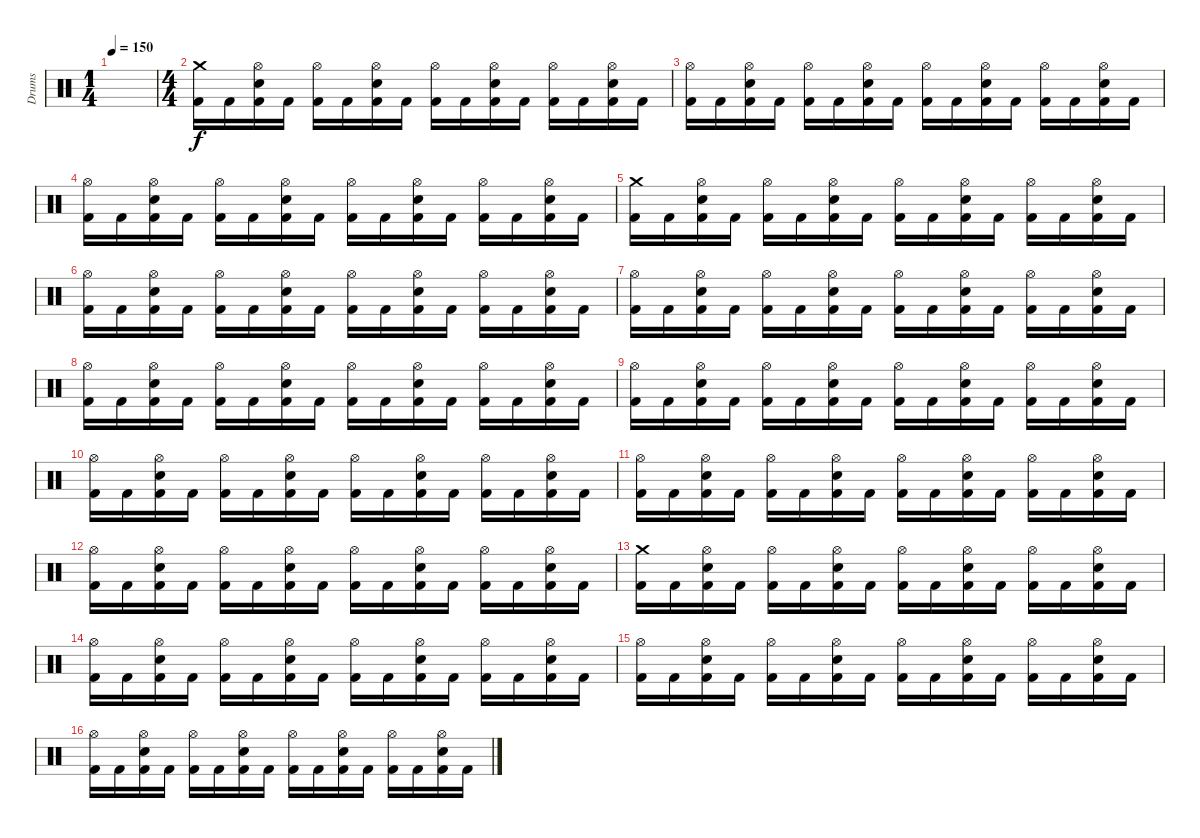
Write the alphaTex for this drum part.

\track ("Drums" "Drums") {instrument percussion}
\staff {score}
\articulation defaults
\ts (1 4)
\tempo 150
\clef neutral
\ks c
|
\ts (4 4)
("Kick (hit) 2" "Crash medium (hit)").16 "Kick (hit) 2".16 ("Kick (hit) 2" "Snare (hit) 2" "Hi-Hat (open)").16 "Kick (hit) 2".16 ("Kick (hit) 2" "Hi-Hat (open)").16 "Kick (hit) 2".16 ("Kick (hit) 2" "Snare (hit) 2" "Hi-Hat (open)").16 "Kick (hit) 2".16 ("Kick (hit) 2" "Hi-Hat (open)").16 "Kick (hit) 2".16 ("Kick (hit) 2" "Snare (hit) 2" "Hi-Hat (open)").16 "Kick (hit) 2".16 ("Kick (hit) 2" "Hi-Hat (open)").16 "Kick (hit) 2".16 ("Kick (hit) 2" "Snare (hit) 2" "Hi-Hat (open)").16 "Kick (hit) 2".16 |
("Kick (hit) 2" "Hi-Hat (open)").16 "Kick (hit) 2".16 ("Kick (hit) 2" "Snare (hit) 2" "Hi-Hat (open)").16 "Kick (hit) 2".16 ("Kick (hit) 2" "Hi-Hat (open)").16 "Kick (hit) 2".16 ("Kick (hit) 2" "Snare (hit) 2" "Hi-Hat (open)").16 "Kick (hit) 2".16 ("Kick (hit) 2" "Hi-Hat (open)").16 "Kick (hit) 2".16 ("Kick (hit) 2" "Snare (hit) 2" "Hi-Hat (open)").16 "Kick (hit) 2".16 ("Kick (hit) 2" "Hi-Hat (open)").16 "Kick (hit) 2".16 ("Kick (hit) 2" "Snare (hit) 2" "Hi-Hat (open)").16 "Kick (hit) 2".16 |
("Kick (hit) 2" "Hi-Hat (open)").16 "Kick (hit) 2".16 ("Kick (hit) 2" "Snare (hit) 2" "Hi-Hat (open)").16 "Kick (hit) 2".16 ("Kick (hit) 2" "Hi-Hat (open)").16 "Kick (hit) 2".16 ("Kick (hit) 2" "Snare (hit) 2" "Hi-Hat (open)").16 "Kick (hit) 2".16 ("Kick (hit) 2" "Hi-Hat (open)").16 "Kick (hit) 2".16 ("Kick (hit) 2" "Snare (hit) 2" "Hi-Hat (open)").16 "Kick (hit) 2".16 ("Kick (hit) 2" "Hi-Hat (open)").16 "Kick (hit) 2".16 ("Kick (hit) 2" "Snare (hit) 2" "Hi-Hat (open)").16 "Kick (hit) 2".16 |
("Kick (hit) 2" "Crash medium (hit)").16 "Kick (hit) 2".16 ("Kick (hit) 2" "Snare (hit) 2" "Hi-Hat (open)").16 "Kick (hit) 2".16 ("Kick (hit) 2" "Hi-Hat (open)").16 "Kick (hit) 2".16 ("Kick (hit) 2" "Snare (hit) 2" "Hi-Hat (open)").16 "Kick (hit) 2".16 ("Kick (hit) 2" "Hi-Hat (open)").16 "Kick (hit) 2".16 ("Kick (hit) 2" "Snare (hit) 2" "Hi-Hat (open)").16 "Kick (hit) 2".16 ("Kick (hit) 2" "Hi-Hat (open)").16 "Kick (hit) 2".16 ("Kick (hit) 2" "Snare (hit) 2" "Hi-Hat (open)").16 "Kick (hit) 2".16 |
("Kick (hit) 2" "Hi-Hat (open)").16 "Kick (hit) 2".16 ("Kick (hit) 2" "Snare (hit) 2" "Hi-Hat (open)").16 "Kick (hit) 2".16 ("Kick (hit) 2" "Hi-Hat (open)").16 "Kick (hit) 2".16 ("Kick (hit) 2" "Snare (hit) 2" "Hi-Hat (open)").16 "Kick (hit) 2".16 ("Kick (hit) 2" "Hi-Hat (open)").16 "Kick (hit) 2".16 ("Kick (hit) 2" "Snare (hit) 2" "Hi-Hat (open)").16 "Kick (hit) 2".16 ("Kick (hit) 2" "Hi-Hat (open)").16 "Kick (hit) 2".16 ("Kick (hit) 2" "Snare (hit) 2" "Hi-Hat (open)").16 "Kick (hit) 2".16 |
("Kick (hit) 2" "Hi-Hat (open)").16 "Kick (hit) 2".16 ("Kick (hit) 2" "Snare (hit) 2" "Hi-Hat (open)").16 "Kick (hit) 2".16 ("Kick (hit) 2" "Hi-Hat (open)").16 "Kick (hit) 2".16 ("Kick (hit) 2" "Snare (hit) 2" "Hi-Hat (open)").16 "Kick (hit) 2".16 ("Kick (hit) 2" "Hi-Hat (open)").16 "Kick (hit) 2".16 ("Kick (hit) 2" "Snare (hit) 2" "Hi-Hat (open)").16 "Kick (hit) 2".16 ("Kick (hit) 2" "Hi-Hat (open)").16 "Kick (hit) 2".16 ("Kick (hit) 2" "Snare (hit) 2" "Hi-Hat (open)").16 "Kick (hit) 2".16 |
("Kick (hit) 2" "Hi-Hat (open)").16 "Kick (hit) 2".16 ("Kick (hit) 2" "Snare (hit) 2" "Hi-Hat (open)").16 "Kick (hit) 2".16 ("Kick (hit) 2" "Hi-Hat (open)").16 "Kick (hit) 2".16 ("Kick (hit) 2" "Snare (hit) 2" "Hi-Hat (open)").16 "Kick (hit) 2".16 ("Kick (hit) 2" "Hi-Hat (open)").16 "Kick (hit) 2".16 ("Kick (hit) 2" "Snare (hit) 2" "Hi-Hat (open)").16 "Kick (hit) 2".16 ("Kick (hit) 2" "Hi-Hat (open)").16 "Kick (hit) 2".16 ("Kick (hit) 2" "Snare (hit) 2" "Hi-Hat (open)").16 "Kick (hit) 2".16 |
("Kick (hit) 2" "Hi-Hat (open)").16 "Kick (hit) 2".16 ("Kick (hit) 2" "Snare (hit) 2" "Hi-Hat (open)").16 "Kick (hit) 2".16 ("Kick (hit) 2" "Hi-Hat (open)").16 "Kick (hit) 2".16 ("Kick (hit) 2" "Snare (hit) 2" "Hi-Hat (open)").16 "Kick (hit) 2".16 ("Kick (hit) 2" "Hi-Hat (open)").16 "Kick (hit) 2".16 ("Kick (hit) 2" "Snare (hit) 2" "Hi-Hat (open)").16 "Kick (hit) 2".16 ("Kick (hit) 2" "Hi-Hat (open)").16 "Kick (hit) 2".16 ("Kick (hit) 2" "Snare (hit) 2" "Hi-Hat (open)").16 "Kick (hit) 2".16 |
("Kick (hit) 2" "Hi-Hat (open)").16 "Kick (hit) 2".16 ("Kick (hit) 2" "Snare (hit) 2" "Hi-Hat (open)").16 "Kick (hit) 2".16 ("Kick (hit) 2" "Hi-Hat (open)").16 "Kick (hit) 2".16 ("Kick (hit) 2" "Snare (hit) 2" "Hi-Hat (open)").16 "Kick (hit) 2".16 ("Kick (hit) 2" "Hi-Hat (open)").16 "Kick (hit) 2".16 ("Kick (hit) 2" "Snare (hit) 2" "Hi-Hat (open)").16 "Kick (hit) 2".16 ("Kick (hit) 2" "Hi-Hat (open)").16 "Kick (hit) 2".16 ("Kick (hit) 2" "Snare (hit) 2" "Hi-Hat (open)").16 "Kick (hit) 2".16 |
("Kick (hit) 2" "Hi-Hat (open)").16 "Kick (hit) 2".16 ("Kick (hit) 2" "Snare (hit) 2" "Hi-Hat (open)").16 "Kick (hit) 2".16 ("Kick (hit) 2" "Hi-Hat (open)").16 "Kick (hit) 2".16 ("Kick (hit) 2" "Snare (hit) 2" "Hi-Hat (open)").16 "Kick (hit) 2".16 ("Kick (hit) 2" "Hi-Hat (open)").16 "Kick (hit) 2".16 ("Kick (hit) 2" "Snare (hit) 2" "Hi-Hat (open)").16 "Kick (hit) 2".16 ("Kick (hit) 2" "Hi-Hat (open)").16 "Kick (hit) 2".16 ("Kick (hit) 2" "Snare (hit) 2" "Hi-Hat (open)").16 "Kick (hit) 2".16 |
("Kick (hit) 2" "Hi-Hat (open)").16 "Kick (hit) 2".16 ("Kick (hit) 2" "Snare (hit) 2" "Hi-Hat (open)").16 "Kick (hit) 2".16 ("Kick (hit) 2" "Hi-Hat (open)").16 "Kick (hit) 2".16 ("Kick (hit) 2" "Snare (hit) 2" "Hi-Hat (open)").16 "Kick (hit) 2".16 ("Kick (hit) 2" "Hi-Hat (open)").16 "Kick (hit) 2".16 ("Kick (hit) 2" "Snare (hit) 2" "Hi-Hat (open)").16 "Kick (hit) 2".16 ("Kick (hit) 2" "Hi-Hat (open)").16 "Kick (hit) 2".16 ("Kick (hit) 2" "Snare (hit) 2" "Hi-Hat (open)").16 "Kick (hit) 2".16 |
("Kick (hit) 2" "Crash medium (hit)").16 "Kick (hit) 2".16 ("Kick (hit) 2" "Snare (hit) 2" "Hi-Hat (open)").16 "Kick (hit) 2".16 ("Kick (hit) 2" "Hi-Hat (open)").16 "Kick (hit) 2".16 ("Kick (hit) 2" "Snare (hit) 2" "Hi-Hat (open)").16 "Kick (hit) 2".16 ("Kick (hit) 2" "Hi-Hat (open)").16 "Kick (hit) 2".16 ("Kick (hit) 2" "Snare (hit) 2" "Hi-Hat (open)").16 "Kick (hit) 2".16 ("Kick (hit) 2" "Hi-Hat (open)").16 "Kick (hit) 2".16 ("Kick (hit) 2" "Snare (hit) 2" "Hi-Hat (open)").16 "Kick (hit) 2".16 |
("Kick (hit) 2" "Hi-Hat (open)").16 "Kick (hit) 2".16 ("Kick (hit) 2" "Snare (hit) 2" "Hi-Hat (open)").16 "Kick (hit) 2".16 ("Kick (hit) 2" "Hi-Hat (open)").16 "Kick (hit) 2".16 ("Kick (hit) 2" "Snare (hit) 2" "Hi-Hat (open)").16 "Kick (hit) 2".16 ("Kick (hit) 2" "Hi-Hat (open)").16 "Kick (hit) 2".16 ("Kick (hit) 2" "Snare (hit) 2" "Hi-Hat (open)").16 "Kick (hit) 2".16 ("Kick (hit) 2" "Hi-Hat (open)").16 "Kick (hit) 2".16 ("Kick (hit) 2" "Snare (hit) 2" "Hi-Hat (open)").16 "Kick (hit) 2".16 |
("Kick (hit) 2" "Hi-Hat (open)").16 "Kick (hit) 2".16 ("Kick (hit) 2" "Snare (hit) 2" "Hi-Hat (open)").16 "Kick (hit) 2".16 ("Kick (hit) 2" "Hi-Hat (open)").16 "Kick (hit) 2".16 ("Kick (hit) 2" "Snare (hit) 2" "Hi-Hat (open)").16 "Kick (hit) 2".16 ("Kick (hit) 2" "Hi-Hat (open)").16 "Kick (hit) 2".16 ("Kick (hit) 2" "Snare (hit) 2" "Hi-Hat (open)").16 "Kick (hit) 2".16 ("Kick (hit) 2" "Hi-Hat (open)").16 "Kick (hit) 2".16 ("Kick (hit) 2" "Snare (hit) 2" "Hi-Hat (open)").16 "Kick (hit) 2".16 |
("Kick (hit) 2" "Hi-Hat (open)").16 "Kick (hit) 2".16 ("Kick (hit) 2" "Snare (hit) 2" "Hi-Hat (open)").16 "Kick (hit) 2".16 ("Kick (hit) 2" "Hi-Hat (open)").16 "Kick (hit) 2".16 ("Kick (hit) 2" "Snare (hit) 2" "Hi-Hat (open)").16 "Kick (hit) 2".16 ("Kick (hit) 2" "Hi-Hat (open)").16 "Kick (hit) 2".16 ("Kick (hit) 2" "Snare (hit) 2" "Hi-Hat (open)").16 "Kick (hit) 2".16 ("Kick (hit) 2" "Hi-Hat (open)").16 "Kick (hit) 2".16 ("Kick (hit) 2" "Snare (hit) 2" "Hi-Hat (open)").16 "Kick (hit) 2".16
